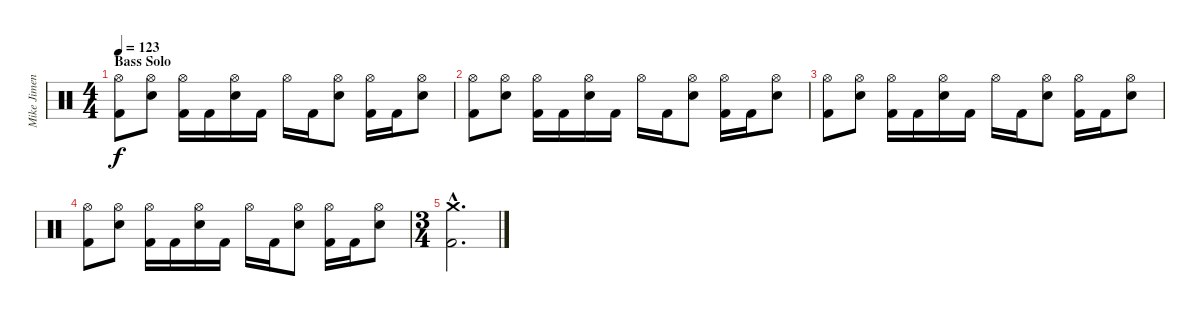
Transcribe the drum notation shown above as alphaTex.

\track ("Mike Jimenez Drums" "Mike Jimen") {instrument percussion}
\staff {score}
\articulation defaults
\ts (4 4)
\section ("" "Bass Solo")
\tempo 123
\clef neutral
\ks c
("Hi-Hat (open)" "Kick (hit) 2").8{dy f} ("Hi-Hat (open)" "Electric Snare (hit)").8 ("Hi-Hat (open)" "Kick (hit) 2").16 "Kick (hit) 2".16 ("Hi-Hat (open)" "Electric Snare (hit)").16 "Kick (hit) 2".16 "Hi-Hat (open)".16 "Kick (hit) 2".16 ("Hi-Hat (open)" "Electric Snare (hit)").8 ("Hi-Hat (open)" "Kick (hit) 2").16 "Kick (hit) 2".16 ("Hi-Hat (open)" "Electric Snare (hit)").8 |
("Hi-Hat (open)" "Kick (hit) 2").8 ("Hi-Hat (open)" "Electric Snare (hit)").8 ("Hi-Hat (open)" "Kick (hit) 2").16 "Kick (hit) 2".16 ("Hi-Hat (open)" "Electric Snare (hit)").16 "Kick (hit) 2".16 "Hi-Hat (open)".16 "Kick (hit) 2".16 ("Hi-Hat (open)" "Electric Snare (hit)").8 ("Hi-Hat (open)" "Kick (hit) 2").16 "Kick (hit) 2".16 ("Hi-Hat (open)" "Electric Snare (hit)").8 |
("Hi-Hat (open)" "Kick (hit) 2").8 ("Hi-Hat (open)" "Electric Snare (hit)").8 ("Hi-Hat (open)" "Kick (hit) 2").16 "Kick (hit) 2".16 ("Hi-Hat (open)" "Electric Snare (hit)").16 "Kick (hit) 2".16 "Hi-Hat (open)".16 "Kick (hit) 2".16 ("Hi-Hat (open)" "Electric Snare (hit)").8 ("Hi-Hat (open)" "Kick (hit) 2").16 "Kick (hit) 2".16 ("Hi-Hat (open)" "Electric Snare (hit)").8 |
("Hi-Hat (open)" "Kick (hit) 2").8 ("Hi-Hat (open)" "Electric Snare (hit)").8 ("Hi-Hat (open)" "Kick (hit) 2").16 "Kick (hit) 2".16 ("Hi-Hat (open)" "Electric Snare (hit)").16 "Kick (hit) 2".16 "Hi-Hat (open)".16 "Kick (hit) 2".16 ("Hi-Hat (open)" "Electric Snare (hit)").8 ("Hi-Hat (open)" "Kick (hit) 2").16 "Kick (hit) 2".16 ("Hi-Hat (open)" "Electric Snare (hit)").8 |
\ts (3 4)
("Crash medium (hit)"{hac} "Kick (hit) 2"{hac}).2{d}
